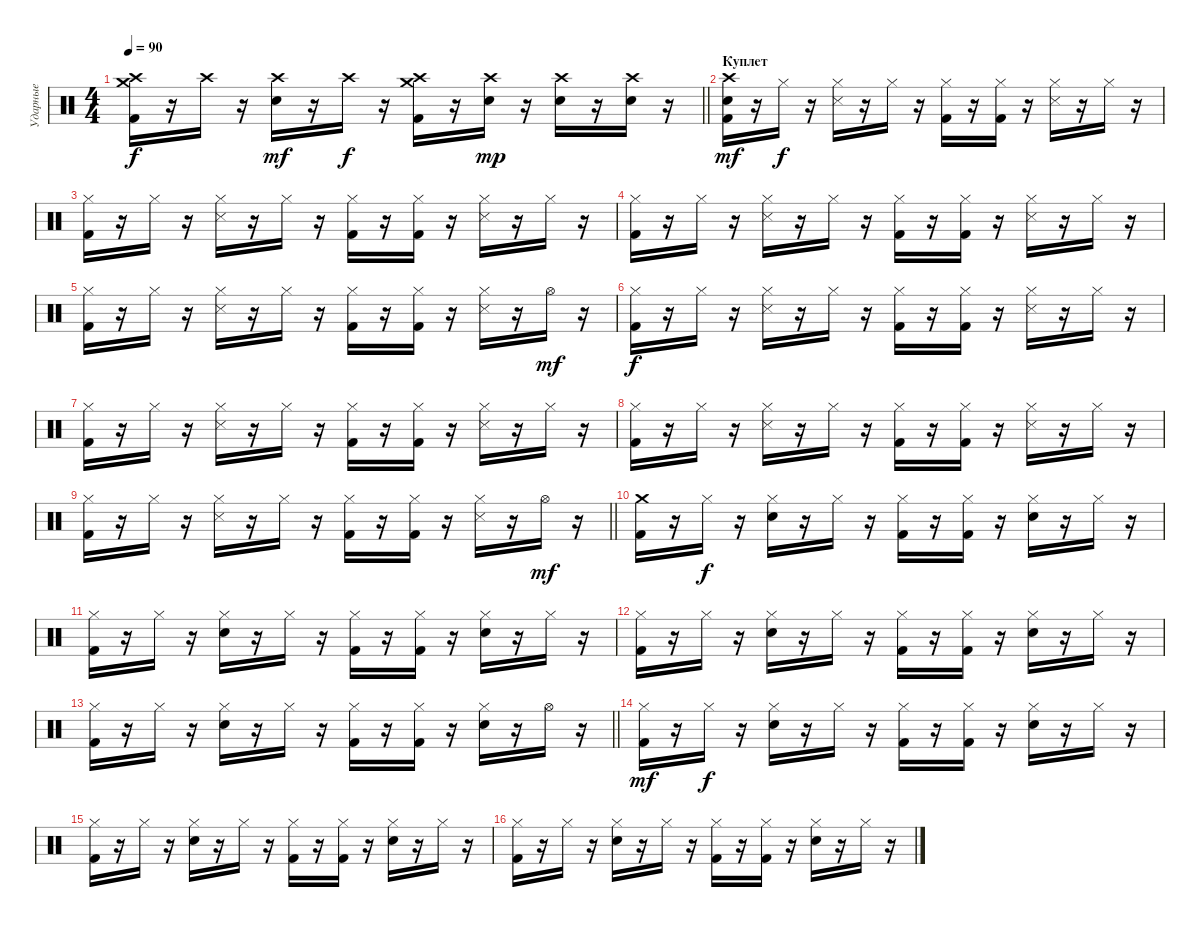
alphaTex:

\track ("Ударные" "Ударные") {instrument percussion}
\staff {score}
\articulation defaults
\ts (4 4)
\tempo 90
\clef neutral
\barLineRight lightlight
\ks c
("Crash medium (hit)" "Crash high (hit)" "Kick (hit) 2").16{dy f} r.16 "Crash high (hit)".16 r.16 ("Crash high (hit)" "Electric Snare (hit)").16{dy mf} r.16 "Crash high (hit)".16{dy f} r.16 ("Crash medium (hit)" "Crash high (hit)" "Kick (hit) 2").16 r.16 ("Crash high (hit)" "Electric Snare (hit)").16{dy mp} r.16 ("Crash high (hit)" "Electric Snare (hit)").16 r.16 ("Crash high (hit)" "Electric Snare (hit)").16 r.16 |
\section ("" "Куплет")
("Crash high (hit)" "Electric Snare (hit)" "Kick (hit) 2").16{dy mf} r.16 "Hi-Hat (closed)".16{dy f} r.16 ("Hi-Hat (closed)" "Snare (side stick) 3").16 r.16 "Hi-Hat (closed)".16 r.16 ("Hi-Hat (closed)" "Kick (hit) 2").16 r.16 ("Hi-Hat (closed)" "Kick (hit) 2").16 r.16 ("Hi-Hat (closed)" "Snare (side stick) 3").16 r.16 "Hi-Hat (closed)".16 r.16 |
("Hi-Hat (closed)" "Kick (hit) 2").16 r.16 "Hi-Hat (closed)".16 r.16 ("Hi-Hat (closed)" "Snare (side stick) 3").16 r.16 "Hi-Hat (closed)".16 r.16 ("Hi-Hat (closed)" "Kick (hit) 2").16 r.16 ("Hi-Hat (closed)" "Kick (hit) 2").16 r.16 ("Hi-Hat (closed)" "Snare (side stick) 3").16 r.16 "Hi-Hat (closed)".16 r.16 |
("Hi-Hat (closed)" "Kick (hit) 2").16 r.16 "Hi-Hat (closed)".16 r.16 ("Hi-Hat (closed)" "Snare (side stick) 3").16 r.16 "Hi-Hat (closed)".16 r.16 ("Hi-Hat (closed)" "Kick (hit) 2").16 r.16 ("Hi-Hat (closed)" "Kick (hit) 2").16 r.16 ("Hi-Hat (closed)" "Snare (side stick) 3").16 r.16 "Hi-Hat (closed)".16 r.16 |
("Hi-Hat (closed)" "Kick (hit) 2").16 r.16 "Hi-Hat (closed)".16 r.16 ("Hi-Hat (closed)" "Snare (side stick) 3").16 r.16 "Hi-Hat (closed)".16 r.16 ("Hi-Hat (closed)" "Kick (hit) 2").16 r.16 ("Hi-Hat (closed)" "Kick (hit) 2").16 r.16 ("Hi-Hat (closed)" "Snare (side stick) 3").16 r.16 "Hi-Hat (open)".16{dy mf} r.16 |
("Hi-Hat (closed)" "Kick (hit) 2").16{dy f} r.16 "Hi-Hat (closed)".16 r.16 ("Hi-Hat (closed)" "Snare (side stick) 3").16 r.16 "Hi-Hat (closed)".16 r.16 ("Hi-Hat (closed)" "Kick (hit) 2").16 r.16 ("Hi-Hat (closed)" "Kick (hit) 2").16 r.16 ("Hi-Hat (closed)" "Snare (side stick) 3").16 r.16 "Hi-Hat (closed)".16 r.16 |
("Hi-Hat (closed)" "Kick (hit) 2").16 r.16 "Hi-Hat (closed)".16 r.16 ("Hi-Hat (closed)" "Snare (side stick) 3").16 r.16 "Hi-Hat (closed)".16 r.16 ("Hi-Hat (closed)" "Kick (hit) 2").16 r.16 ("Hi-Hat (closed)" "Kick (hit) 2").16 r.16 ("Hi-Hat (closed)" "Snare (side stick) 3").16 r.16 "Hi-Hat (closed)".16 r.16 |
("Hi-Hat (closed)" "Kick (hit) 2").16 r.16 "Hi-Hat (closed)".16 r.16 ("Hi-Hat (closed)" "Snare (side stick) 3").16 r.16 "Hi-Hat (closed)".16 r.16 ("Hi-Hat (closed)" "Kick (hit) 2").16 r.16 ("Hi-Hat (closed)" "Kick (hit) 2").16 r.16 ("Hi-Hat (closed)" "Snare (side stick) 3").16 r.16 "Hi-Hat (closed)".16 r.16 |
\barLineRight lightlight
("Hi-Hat (closed)" "Kick (hit) 2").16 r.16 "Hi-Hat (closed)".16 r.16 ("Hi-Hat (closed)" "Snare (side stick) 3").16 r.16 "Hi-Hat (closed)".16 r.16 ("Hi-Hat (closed)" "Kick (hit) 2").16 r.16 ("Hi-Hat (closed)" "Kick (hit) 2").16 r.16 ("Hi-Hat (closed)" "Snare (side stick) 3").16 r.16 "Hi-Hat (open)".16{dy mf} r.16 |
("Crash medium (hit)" "Kick (hit) 2").16 r.16 "Hi-Hat (closed)".16{dy f} r.16 ("Hi-Hat (closed)" "Electric Snare (hit)").16 r.16 "Hi-Hat (closed)".16 r.16 ("Hi-Hat (closed)" "Kick (hit) 2").16 r.16 ("Hi-Hat (closed)" "Kick (hit) 2").16 r.16 ("Hi-Hat (closed)" "Electric Snare (hit)").16 r.16 "Hi-Hat (closed)".16 r.16 |
("Hi-Hat (closed)" "Kick (hit) 2").16 r.16 "Hi-Hat (closed)".16 r.16 ("Hi-Hat (closed)" "Electric Snare (hit)").16 r.16 "Hi-Hat (closed)".16 r.16 ("Hi-Hat (closed)" "Kick (hit) 2").16 r.16 ("Hi-Hat (closed)" "Kick (hit) 2").16 r.16 ("Hi-Hat (closed)" "Electric Snare (hit)").16 r.16 "Hi-Hat (closed)".16 r.16 |
("Hi-Hat (closed)" "Kick (hit) 2").16 r.16 "Hi-Hat (closed)".16 r.16 ("Hi-Hat (closed)" "Electric Snare (hit)").16 r.16 "Hi-Hat (closed)".16 r.16 ("Hi-Hat (closed)" "Kick (hit) 2").16 r.16 ("Hi-Hat (closed)" "Kick (hit) 2").16 r.16 ("Hi-Hat (closed)" "Electric Snare (hit)").16 r.16 "Hi-Hat (closed)".16 r.16 |
\barLineRight lightlight
("Hi-Hat (closed)" "Kick (hit) 2").16 r.16 "Hi-Hat (closed)".16 r.16 ("Hi-Hat (closed)" "Electric Snare (hit)").16 r.16 "Hi-Hat (closed)".16 r.16 ("Hi-Hat (closed)" "Kick (hit) 2").16 r.16 ("Hi-Hat (closed)" "Kick (hit) 2").16 r.16 ("Hi-Hat (closed)" "Electric Snare (hit)").16 r.16 "Hi-Hat (open)".16 r.16 |
("Hi-Hat (closed)" "Kick (hit) 2").16{dy mf} r.16 "Hi-Hat (closed)".16{dy f} r.16 ("Hi-Hat (closed)" "Electric Snare (hit)").16 r.16 "Hi-Hat (closed)".16 r.16 ("Hi-Hat (closed)" "Kick (hit) 2").16 r.16 ("Hi-Hat (closed)" "Kick (hit) 2").16 r.16 ("Hi-Hat (closed)" "Electric Snare (hit)").16 r.16 "Hi-Hat (closed)".16 r.16 |
("Hi-Hat (closed)" "Kick (hit) 2").16 r.16 "Hi-Hat (closed)".16 r.16 ("Hi-Hat (closed)" "Electric Snare (hit)").16 r.16 "Hi-Hat (closed)".16 r.16 ("Hi-Hat (closed)" "Kick (hit) 2").16 r.16 ("Hi-Hat (closed)" "Kick (hit) 2").16 r.16 ("Hi-Hat (closed)" "Electric Snare (hit)").16 r.16 "Hi-Hat (closed)".16 r.16 |
("Hi-Hat (closed)" "Kick (hit) 2").16 r.16 "Hi-Hat (closed)".16 r.16 ("Hi-Hat (closed)" "Electric Snare (hit)").16 r.16 "Hi-Hat (closed)".16 r.16 ("Hi-Hat (closed)" "Kick (hit) 2").16 r.16 ("Hi-Hat (closed)" "Kick (hit) 2").16 r.16 ("Hi-Hat (closed)" "Electric Snare (hit)").16 r.16 "Hi-Hat (closed)".16 r.16
